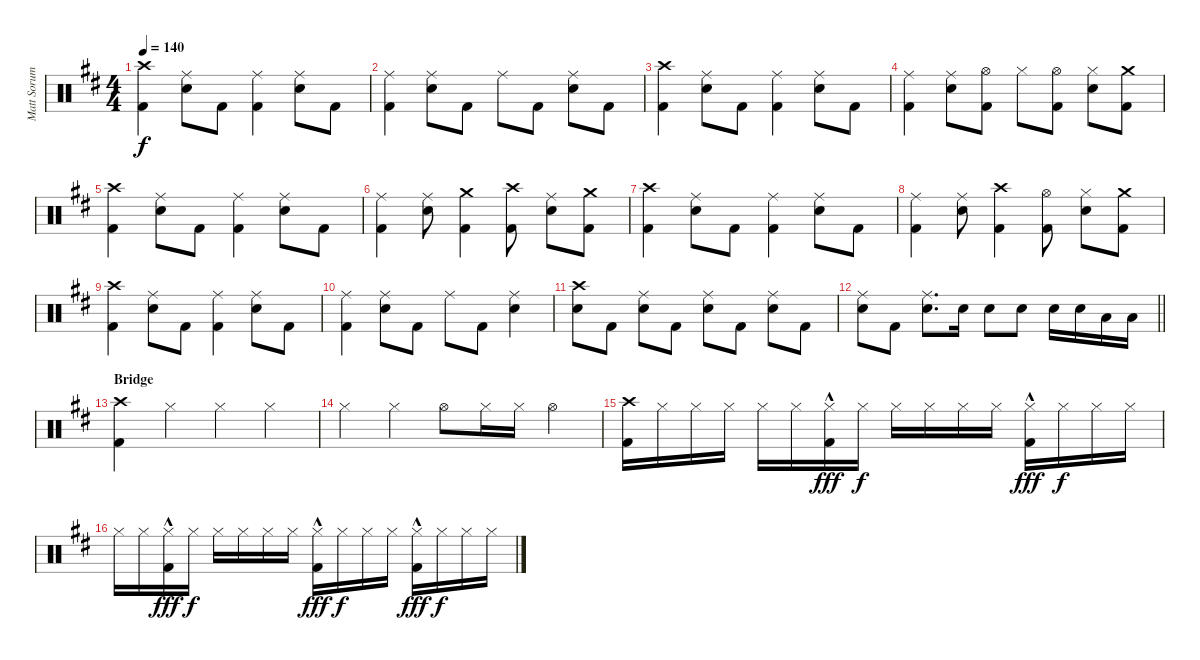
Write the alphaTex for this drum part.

\track ("Matt Sorum - Drums" "Matt Sorum") {instrument percussion}
\staff {score}
\articulation defaults
\ts (4 4)
\tempo 140
\clef neutral
\ks d
("Crash high (hit)" "Kick (hit) 2").4{dy f} ("Ride (middle)" "Snare (hit) 2").8 "Kick (hit) 2".8 ("Ride (middle)" "Kick (hit) 2").4 ("Ride (middle)" "Snare (hit) 2").8 "Kick (hit) 2".8 |
("Ride (middle)" "Kick (hit) 2").4 ("Ride (middle)" "Snare (hit) 2").8 "Kick (hit) 2".8 "Ride (middle)".8 "Kick (hit) 2".8 ("Ride (middle)" "Snare (hit) 2").8 "Kick (hit) 2".8 |
("Crash high (hit)" "Kick (hit) 2").4 ("Ride (middle)" "Snare (hit) 2").8 "Kick (hit) 2".8 ("Ride (middle)" "Kick (hit) 2").4 ("Ride (middle)" "Snare (hit) 2").8 "Kick (hit) 2".8 |
("Ride (middle)" "Kick (hit) 2").4 ("Ride (middle)" "Snare (hit) 2").8 ("Hi-Hat (open)" "Kick (hit) 2").8 "Hi-Hat (closed)".8 ("Hi-Hat (open)" "Kick (hit) 2").8 ("Hi-Hat (closed)" "Snare (hit) 2").8 ("Crash medium (hit)" "Kick (hit) 2").8 |
("Crash high (hit)" "Kick (hit) 2").4 ("Ride (middle)" "Snare (hit) 2").8 "Kick (hit) 2".8 ("Ride (middle)" "Kick (hit) 2").4 ("Ride (middle)" "Snare (hit) 2").8 "Kick (hit) 2".8 |
("Ride (middle)" "Kick (hit) 2").4 ("Ride (middle)" "Snare (hit) 2").8 ("Crash medium (hit)" "Kick (hit) 2").4 ("Crash high (hit)" "Kick (hit) 2").8 ("Ride (middle)" "Snare (hit) 2").8 ("Crash medium (hit)" "Kick (hit) 2").8 |
("Crash high (hit)" "Kick (hit) 2").4 ("Ride (middle)" "Snare (hit) 2").8 "Kick (hit) 2".8 ("Ride (middle)" "Kick (hit) 2").4 ("Ride (middle)" "Snare (hit) 2").8 "Kick (hit) 2".8 |
("Ride (middle)" "Kick (hit) 2").4 ("Ride (middle)" "Snare (hit) 2").8 ("Crash high (hit)" "Kick (hit) 2").4 ("Hi-Hat (open)" "Kick (hit) 2").8 ("Hi-Hat (closed)" "Snare (hit) 2").8 ("Crash medium (hit)" "Kick (hit) 2").8 |
("Crash high (hit)" "Kick (hit) 2").4 ("Ride (middle)" "Snare (hit) 2").8 "Kick (hit) 2".8 ("Ride (middle)" "Kick (hit) 2").4 ("Ride (middle)" "Snare (hit) 2").8 "Kick (hit) 2".8 |
("Ride (middle)" "Kick (hit) 2").4 ("Ride (middle)" "Snare (hit) 2").8 "Kick (hit) 2".8 "Ride (middle)".8 "Kick (hit) 2".8 ("Ride (middle)" "Snare (hit) 2").4 |
("Crash high (hit)" "Snare (hit) 2").8 "Kick (hit) 2".8 ("Ride (middle)" "Snare (hit) 2").8 "Kick (hit) 2".8 ("Ride (middle)" "Snare (hit) 2").8 "Kick (hit) 2".8 ("Ride (middle)" "Snare (hit) 2").8 "Kick (hit) 2".8 |
\barLineRight lightlight
("Ride (middle)" "Snare (hit) 2").8 "Kick (hit) 2".8 ("Ride (middle)" "Snare (hit) 2").8{d} "Snare (hit) 2".16 "Snare (hit) 2".8 "Snare (hit) 2".8 "Snare (hit) 2".16 "Snare (hit) 2".16 "Low Tom (hit)".16 "Low Tom (hit)".16 |
\section ("" "Bridge")
("Crash high (hit)" "Kick (hit) 2").4 "Hi-Hat (closed)".4 "Hi-Hat (closed)".4 "Hi-Hat (closed)".4 |
"Hi-Hat (closed)".4 "Hi-Hat (closed)".4 "Hi-Hat (open)".8 "Hi-Hat (closed)".16 "Hi-Hat (closed)".16 "Hi-Hat (open)".4 |
("Crash high (hit)" "Kick (hit) 2").16 "Hi-Hat (closed)".16 "Hi-Hat (closed)".16 "Hi-Hat (closed)".16 "Hi-Hat (closed)".16 "Hi-Hat (closed)".16 ("Hi-Hat (closed)"{hac} "Kick (hit) 2").16{dy fff} "Hi-Hat (closed)".16{dy f} "Hi-Hat (closed)".16 "Hi-Hat (closed)".16 "Hi-Hat (closed)".16 "Hi-Hat (closed)".16 ("Hi-Hat (closed)"{hac} "Kick (hit) 2").16{dy fff} "Hi-Hat (closed)".16{dy f} "Hi-Hat (closed)".16 "Hi-Hat (closed)".16 |
"Hi-Hat (closed)".16 "Hi-Hat (closed)".16 ("Hi-Hat (closed)"{hac} "Kick (hit) 2").16{dy fff} "Hi-Hat (closed)".16{dy f} "Hi-Hat (closed)".16 "Hi-Hat (closed)".16 "Hi-Hat (closed)".16 "Hi-Hat (closed)".16 ("Hi-Hat (closed)"{hac} "Kick (hit) 2").16{dy fff} "Hi-Hat (closed)".16{dy f} "Hi-Hat (closed)".16 "Hi-Hat (closed)".16 ("Hi-Hat (closed)"{hac} "Kick (hit) 2").16{dy fff} "Hi-Hat (closed)".16{dy f} "Hi-Hat (closed)".16 "Hi-Hat (closed)".16
